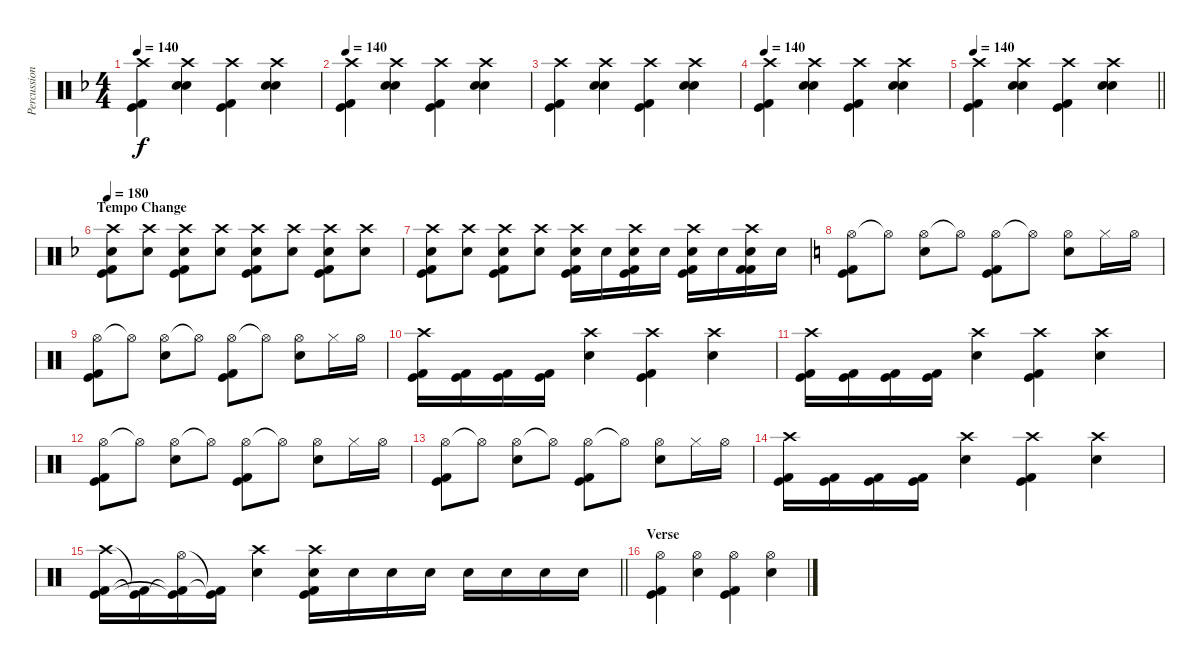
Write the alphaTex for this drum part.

\track ("Percussion" "Percussion") {instrument percussion}
\staff {score}
\articulation defaults
\ts (4 4)
\tempo 140
\clef neutral
\ks dminor
("Crash high (hit)" "Kick (hit) 2" "Kick (hit)").4{dy f} ("Crash high (hit)" "Electric Snare (hit)" "Electric Snare (hit)").4 ("Crash high (hit)" "Kick (hit)" "Kick (hit) 2").4 ("Crash high (hit)" "Electric Snare (hit)" "Electric Snare (hit)").4 |
\tempo 140
("Crash high (hit)" "Kick (hit) 2" "Kick (hit)").4 ("Crash high (hit)" "Electric Snare (hit)" "Electric Snare (hit)").4 ("Crash high (hit)" "Kick (hit)" "Kick (hit) 2").4 ("Crash high (hit)" "Electric Snare (hit)" "Electric Snare (hit)").4 |
("Crash high (hit)" "Kick (hit) 2" "Kick (hit)").4 ("Crash high (hit)" "Electric Snare (hit)" "Electric Snare (hit)").4 ("Crash high (hit)" "Kick (hit)" "Kick (hit) 2").4 ("Crash high (hit)" "Electric Snare (hit)" "Electric Snare (hit)").4 |
\tempo 140
("Crash high (hit)" "Kick (hit) 2" "Kick (hit)").4 ("Crash high (hit)" "Electric Snare (hit)" "Electric Snare (hit)").4 ("Crash high (hit)" "Kick (hit)" "Kick (hit) 2").4 ("Crash high (hit)" "Electric Snare (hit)" "Electric Snare (hit)").4 |
\tempo 140
\barLineRight lightlight
("Crash high (hit)" "Kick (hit) 2" "Kick (hit)").4 ("Crash high (hit)" "Electric Snare (hit)" "Electric Snare (hit)").4 ("Crash high (hit)" "Kick (hit)" "Kick (hit) 2").4 ("Crash high (hit)" "Electric Snare (hit)" "Electric Snare (hit)").4 |
\section ("" "Tempo Change")
\tempo 180
("Crash high (hit)" "Electric Snare (hit)" "Kick (hit)" "Kick (hit) 2").8 ("Crash high (hit)" "Electric Snare (hit)").8 ("Crash high (hit)" "Electric Snare (hit)" "Kick (hit)" "Kick (hit) 2").8 ("Crash high (hit)" "Electric Snare (hit)").8 ("Crash high (hit)" "Electric Snare (hit)" "Kick (hit)" "Kick (hit) 2").8 ("Crash high (hit)" "Electric Snare (hit)").8 ("Crash high (hit)" "Electric Snare (hit)" "Kick (hit)" "Kick (hit) 2").8 ("Crash high (hit)" "Electric Snare (hit)").8 |
("Crash high (hit)" "Electric Snare (hit)" "Kick (hit)" "Kick (hit) 2").8 ("Crash high (hit)" "Electric Snare (hit)").8 ("Crash high (hit)" "Electric Snare (hit)" "Kick (hit)" "Kick (hit) 2").8 ("Crash high (hit)" "Electric Snare (hit)").8 ("Crash high (hit)" "Electric Snare (hit)" "Kick (hit)" "Kick (hit) 2").16 "Electric Snare (hit)".16 ("Crash high (hit)" "Electric Snare (hit)" "Kick (hit)" "Kick (hit) 2").16 "Electric Snare (hit)".16 ("Crash high (hit)" "Kick (hit) 2" "Electric Snare (hit)" "Kick (hit)").16 "Electric Snare (hit)".16 ("Crash high (hit)" "Kick (hit) 2" "Electric Snare (hit)" "Kick (hit) 2").16 "Electric Snare (hit)".16 |
\ks c
("Hi-Hat (open)" "Kick (hit) 2" "Kick (hit)").8 "Hi-Hat (open)"{t}.8 ("Hi-Hat (open)" "Electric Snare (hit)").8 "Hi-Hat (open)"{t}.8 ("Hi-Hat (open)" "Kick (hit) 2" "Kick (hit)").8 "Hi-Hat (open)"{t}.8 ("Hi-Hat (open)" "Electric Snare (hit)").8 "Hi-Hat (closed)".16 "Hi-Hat (open)".16 |
("Hi-Hat (open)" "Kick (hit) 2" "Kick (hit)").8 "Hi-Hat (open)"{t}.8 ("Hi-Hat (open)" "Electric Snare (hit)").8 "Hi-Hat (open)"{t}.8 ("Hi-Hat (open)" "Kick (hit) 2" "Kick (hit)").8 "Hi-Hat (open)"{t}.8 ("Hi-Hat (open)" "Electric Snare (hit)").8 "Hi-Hat (closed)".16 "Hi-Hat (open)".16 |
("Crash high (hit)" "Kick (hit) 2" "Kick (hit)").16 ("Kick (hit) 2" "Kick (hit)").16 ("Kick (hit) 2" "Kick (hit)").16 ("Kick (hit) 2" "Kick (hit)").16 ("Crash high (hit)" "Electric Snare (hit)").4 ("Crash high (hit)" "Kick (hit) 2" "Kick (hit)").4 ("Crash high (hit)" "Electric Snare (hit)").4 |
("Crash high (hit)" "Kick (hit) 2" "Kick (hit)").16 ("Kick (hit) 2" "Kick (hit)").16 ("Kick (hit) 2" "Kick (hit)").16 ("Kick (hit) 2" "Kick (hit)").16 ("Crash high (hit)" "Electric Snare (hit)").4 ("Crash high (hit)" "Kick (hit) 2" "Kick (hit)").4 ("Crash high (hit)" "Electric Snare (hit)").4 |
("Hi-Hat (open)" "Kick (hit) 2" "Kick (hit)").8 "Hi-Hat (open)"{t}.8 ("Hi-Hat (open)" "Electric Snare (hit)").8 "Hi-Hat (open)"{t}.8 ("Hi-Hat (open)" "Kick (hit) 2" "Kick (hit)").8 "Hi-Hat (open)"{t}.8 ("Hi-Hat (open)" "Electric Snare (hit)").8 "Hi-Hat (closed)".16 "Hi-Hat (open)".16 |
("Hi-Hat (open)" "Kick (hit) 2" "Kick (hit)").8 "Hi-Hat (open)"{t}.8 ("Hi-Hat (open)" "Electric Snare (hit)").8 "Hi-Hat (open)"{t}.8 ("Hi-Hat (open)" "Kick (hit) 2" "Kick (hit)").8 "Hi-Hat (open)"{t}.8 ("Hi-Hat (open)" "Electric Snare (hit)").8 "Hi-Hat (closed)".16 "Hi-Hat (open)".16 |
("Crash high (hit)" "Kick (hit) 2" "Kick (hit)").16 ("Kick (hit) 2" "Kick (hit)").16 ("Kick (hit) 2" "Kick (hit)").16 ("Kick (hit) 2" "Kick (hit)").16 ("Crash high (hit)" "Electric Snare (hit)").4 ("Crash high (hit)" "Kick (hit) 2" "Kick (hit)").4 ("Crash high (hit)" "Electric Snare (hit)").4 |
\barLineRight lightlight
("Crash high (hit)" "Kick (hit) 2" "Kick (hit)").16 ("Kick (hit) 2"{t} "Kick (hit)"{t}).16 ("Hi-Hat (open)" "Kick (hit) 2"{t} "Kick (hit)"{t}).16 ("Kick (hit) 2"{t} "Kick (hit)"{t}).16 ("Crash high (hit)" "Electric Snare (hit)").4 ("Crash high (hit)" "Electric Snare (hit)" "Kick (hit) 2" "Kick (hit)").16 "Electric Snare (hit)".16 "Electric Snare (hit)".16 "Electric Snare (hit)".16 "Electric Snare (hit)".16 "Electric Snare (hit)".16 "Electric Snare (hit)".16 "Electric Snare (hit)".16 |
\section ("" "Verse")
("Hi-Hat (open)" "Kick (hit) 2" "Kick (hit)").4 ("Hi-Hat (open)" "Electric Snare (hit)").4 ("Hi-Hat (open)" "Kick (hit) 2" "Kick (hit)").4 ("Hi-Hat (open)" "Electric Snare (hit)").4
